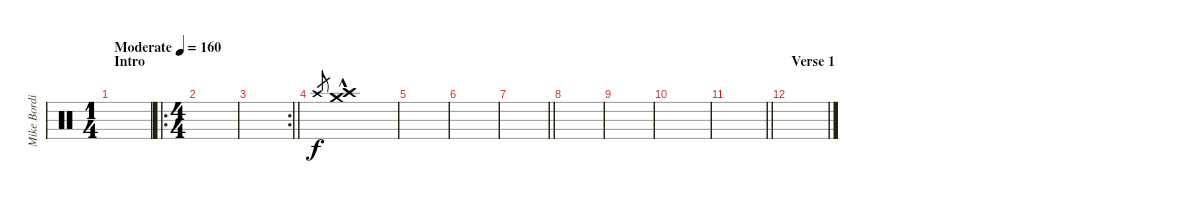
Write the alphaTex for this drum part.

\track ("Mike Bordin - Percussion Crash" "Mike Bordi") {instrument percussion}
\staff {score}
\articulation defaults
\ts (1 4)
\section ("" "Intro")
\tempo (160 "Moderate")
\clef neutral
\ks c
|
\ro
\ts (4 4)
|
\rc 2
\barLineRight lightlight
|
\section ("" "")
"Crash high (hit)".8{gr} ("Crash high (hit)"{hac} "Crash medium (hit)").1{volume 16} |
|
|
\barLineRight lightlight
|
\section ("" "")
|
|
|
\barLineRight lightlight
|
\section ("" "Verse 1")
